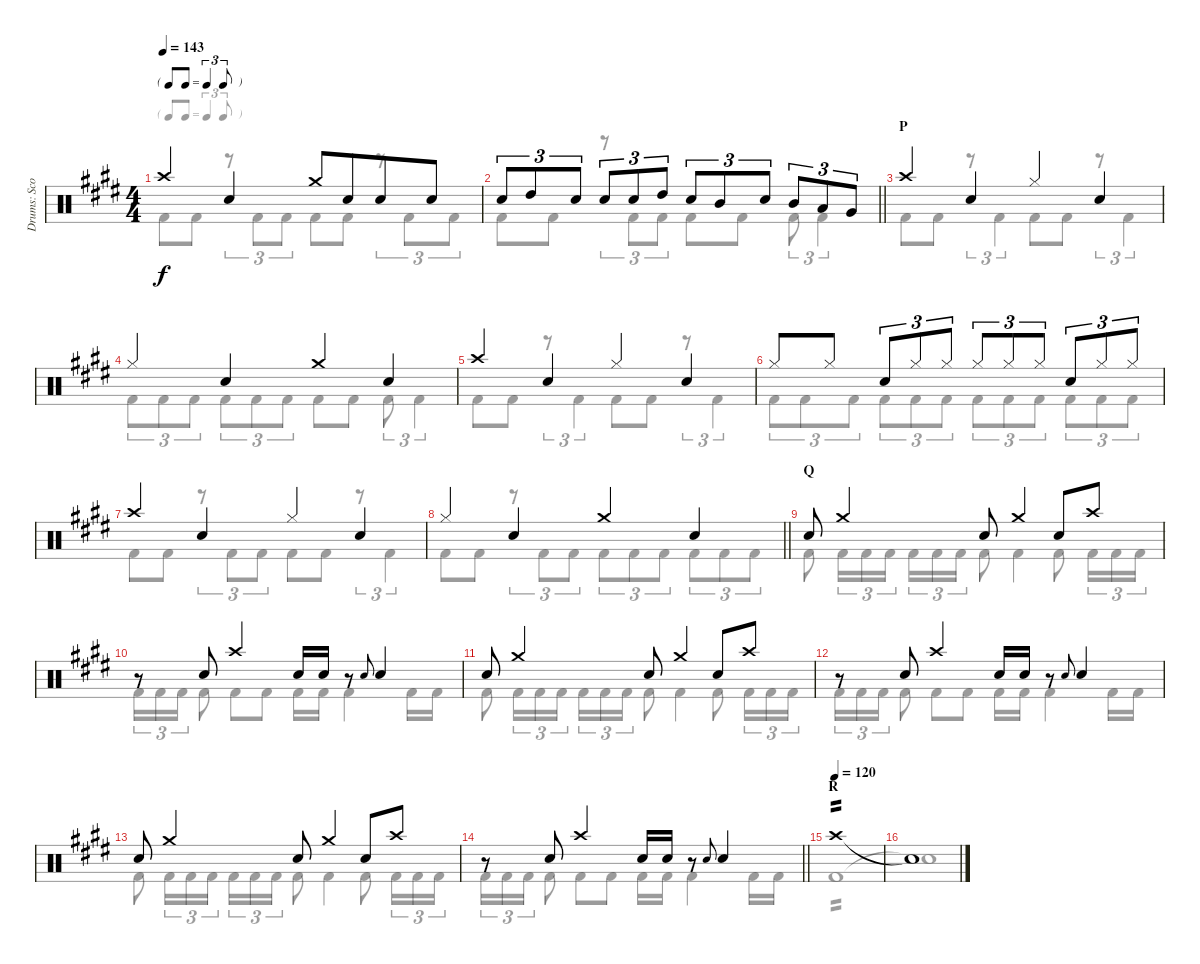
\track ("Drums: Scott" "Drums: Sco") {instrument percussion}
\staff {score}
\articulation defaults
\voice
\ts (4 4)
\tf triplet8th
\tempo 143
\clef neutral
\ks e "Crash high (hit)".4{dy f} "Snare (hit) 2".4 "Crash medium (hit)".8 "Snare (hit) 2".8{beam merge} "Snare (hit) 2".8 "Snare (hit) 2".8
|
\barLineRight lightlight "Snare (hit) 2".8{tu (3 2)} "High Tom (hit)".8{tu (3 2)} "Snare (hit) 2".8{tu (3 2)} "Snare (hit) 2".8{tu (3 2)} "Snare (hit) 2".8{tu (3 2)} "High Tom (hit)".8{tu (3 2)} "Electric Snare (hit)".8{tu (3 2)} "Mid Tom (hit)".8{tu (3 2)} "Electric Snare (hit)".8{tu (3 2)} "Mid Tom (hit)".8{tu (3 2)} "Low Tom (hit)".8{tu (3 2)} "Very Low Tom (hit)".8{tu (3 2)}
|
\section ("" "P")
"Crash high (hit)".4 "Snare (hit) 2".4 "Hi-Hat (closed)".4 "Snare (hit) 2".4 |
"Hi-Hat (closed)".4 "Snare (hit) 2".4 "Crash medium (hit)".4 "Snare (hit) 2".4 |
"Crash high (hit)".4 "Snare (hit) 2".4 "Hi-Hat (closed)".4 "Snare (hit) 2".4 |
"Hi-Hat (closed)".8 "Hi-Hat (closed)".8 "Snare (hit) 2".8{tu (3 2)} "Hi-Hat (closed)".8{tu (3 2)} "Hi-Hat (closed)".8{tu (3 2)} "Hi-Hat (closed)".8{tu (3 2)} "Hi-Hat (closed)".8{tu (3 2)} "Hi-Hat (closed)".8{tu (3 2)} "Snare (hit) 2".8{tu (3 2)} "Hi-Hat (closed)".8{tu (3 2)} "Hi-Hat (closed)".8{tu (3 2)} |
"Crash high (hit)".4 "Snare (hit) 2".4 "Hi-Hat (closed)".4 "Snare (hit) 2".4 |
\barLineRight lightlight "Hi-Hat (closed)".4 "Snare (hit) 2".4 "Crash medium (hit)".4 "Snare (hit) 2".4
|
\section ("" "Q")
"Snare (hit) 2".8 "Crash medium (hit)".4 "Snare (hit) 2".8 "Crash medium (hit)".4 "Snare (hit) 2".8 "Crash high (hit)".8 |
r.8 "Snare (hit) 2".8 "Crash high (hit)".4 "Snare (hit) 2".16 "Snare (hit) 2".16 r.8 "Electric Snare (hit)".8{gr onbeat} "Snare (hit) 2".4 |
"Snare (hit) 2".8 "Crash medium (hit)".4 "Snare (hit) 2".8 "Crash medium (hit)".4 "Snare (hit) 2".8 "Crash high (hit)".8 |
r.8 "Snare (hit) 2".8 "Crash high (hit)".4 "Snare (hit) 2".16 "Snare (hit) 2".16 r.8 "Electric Snare (hit)".8{gr onbeat} "Snare (hit) 2".4 |
"Snare (hit) 2".8 "Crash medium (hit)".4 "Snare (hit) 2".8 "Crash medium (hit)".4 "Snare (hit) 2".8 "Crash high (hit)".8 |
\barLineRight lightlight
r.8 "Snare (hit) 2".8 "Crash high (hit)".4 "Snare (hit) 2".16 "Snare (hit) 2".16 r.8 "Electric Snare (hit)".8{gr onbeat} "Snare (hit) 2".4 |
\section ("" "R")
\tempo (120)
"Crash high (hit)".1{tp 2} |
"Snare (hit)"{t}.1
\voice
\clef neutral
\ottava regular
\simile none
\ks e "Kick (hit) 2".8{dy f} "Kick (hit) 2".8
r.8{tu (3 2)} "Kick (hit) 2".8{tu (3 2)} "Kick (hit) 2".8{tu (3 2)} "Kick (hit) 2".8 "Kick (hit) 2".8 r.8{tu (3 2)} "Kick (hit) 2".8{tu (3 2)} "Kick (hit) 2".8{tu (3 2)} |
\barLineRight lightlight "Kick (hit) 2".8 "Kick (hit) 2".8
r.8{tu (3 2)} "Kick (hit) 2".8{tu (3 2)} "Kick (hit) 2".8{tu (3 2)} "Kick (hit) 2".8 "Kick (hit) 2".8 "Kick (hit) 2".8{tu (3 2)} "Kick (hit) 2".4{tu (3 2)} |
"Kick (hit) 2".8 "Kick (hit) 2".8 r.8{tu (3 2)} "Kick (hit) 2".4{tu (3 2)} "Kick (hit) 2".8 "Kick (hit) 2".8 r.8{tu (3 2)} "Kick (hit) 2".4{tu (3 2)} |
"Kick (hit) 2".8{tu (3 2)} "Kick (hit) 2".8{tu (3 2)} "Kick (hit) 2".8{tu (3 2)} "Kick (hit) 2".8{tu (3 2)} "Kick (hit) 2".8{tu (3 2)} "Kick (hit) 2".8{tu (3 2)} "Kick (hit) 2".8 "Kick (hit) 2".8 "Kick (hit) 2".8{tu (3 2)} "Kick (hit) 2".4{tu (3 2)} |
"Kick (hit) 2".8 "Kick (hit) 2".8 r.8{tu (3 2)} "Kick (hit) 2".4{tu (3 2)} "Kick (hit) 2".8 "Kick (hit) 2".8 r.8{tu (3 2)} "Kick (hit) 2".4{tu (3 2)} |
"Kick (hit) 2".8{tu (3 2)} "Kick (hit) 2".8{tu (3 2)} "Kick (hit) 2".8{tu (3 2)} "Kick (hit) 2".8{tu (3 2)} "Kick (hit) 2".8{tu (3 2)} "Kick (hit) 2".8{tu (3 2)} "Kick (hit) 2".8{tu (3 2)} "Kick (hit) 2".8{tu (3 2)} "Kick (hit) 2".8{tu (3 2)} "Kick (hit) 2".8{tu (3 2)} "Kick (hit) 2".8{tu (3 2)} "Kick (hit) 2".8{tu (3 2)} |
"Kick (hit) 2".8 "Kick (hit) 2".8 r.8{tu (3 2)} "Kick (hit) 2".8{tu (3 2)} "Kick (hit) 2".8{tu (3 2)} "Kick (hit) 2".8 "Kick (hit) 2".8 r.8{tu (3 2)} "Kick (hit) 2".4{tu (3 2)} |
\barLineRight lightlight "Kick (hit) 2".8 "Kick (hit) 2".8
r.8{tu (3 2)} "Kick (hit) 2".8{tu (3 2)} "Kick (hit) 2".8{tu (3 2)} "Kick (hit) 2".8{tu (3 2)} "Kick (hit) 2".8{tu (3 2)} "Kick (hit) 2".8{tu (3 2)} "Kick (hit) 2".8{tu (3 2)} "Kick (hit) 2".8{tu (3 2)} "Kick (hit) 2".8{tu (3 2)} |
"Kick (hit) 2".8 "Kick (hit) 2".16{tu (3 2)} "Kick (hit) 2".16{tu (3 2)} "Kick (hit) 2".16{tu (3 2)} "Kick (hit) 2".16{tu (3 2)} "Kick (hit) 2".16{tu (3 2)} "Kick (hit) 2".16{tu (3 2)} "Kick (hit) 2".8 "Kick (hit) 2".4 "Kick (hit) 2".8 "Kick (hit) 2".16{tu (3 2)} "Kick (hit) 2".16{tu (3 2)} "Kick (hit) 2".16{tu (3 2)} |
"Kick (hit) 2".16{tu (3 2)} "Kick (hit) 2".16{tu (3 2)} "Kick (hit) 2".16{tu (3 2)} "Kick (hit) 2".8 "Kick (hit) 2".8 "Kick (hit) 2".8 "Kick (hit) 2".16 "Kick (hit) 2".16 "Kick (hit) 2".4 "Kick (hit) 2".16 "Kick (hit) 2".16 |
"Kick (hit) 2".8 "Kick (hit) 2".16{tu (3 2)} "Kick (hit) 2".16{tu (3 2)} "Kick (hit) 2".16{tu (3 2)} "Kick (hit) 2".16{tu (3 2)} "Kick (hit) 2".16{tu (3 2)} "Kick (hit) 2".16{tu (3 2)} "Kick (hit) 2".8 "Kick (hit) 2".4 "Kick (hit) 2".8 "Kick (hit) 2".16{tu (3 2)} "Kick (hit) 2".16{tu (3 2)} "Kick (hit) 2".16{tu (3 2)} |
"Kick (hit) 2".16{tu (3 2)} "Kick (hit) 2".16{tu (3 2)} "Kick (hit) 2".16{tu (3 2)} "Kick (hit) 2".8 "Kick (hit) 2".8 "Kick (hit) 2".8 "Kick (hit) 2".16 "Kick (hit) 2".16 "Kick (hit) 2".4 "Kick (hit) 2".16 "Kick (hit) 2".16 |
"Kick (hit) 2".8 "Kick (hit) 2".16{tu (3 2)} "Kick (hit) 2".16{tu (3 2)} "Kick (hit) 2".16{tu (3 2)} "Kick (hit) 2".16{tu (3 2)} "Kick (hit) 2".16{tu (3 2)} "Kick (hit) 2".16{tu (3 2)} "Kick (hit) 2".8 "Kick (hit) 2".4 "Kick (hit) 2".8 "Kick (hit) 2".16{tu (3 2)} "Kick (hit) 2".16{tu (3 2)} "Kick (hit) 2".16{tu (3 2)} |
\barLineRight lightlight "Kick (hit) 2".16{tu (3 2)} "Kick (hit) 2".16{tu (3 2)} "Kick (hit) 2".16{tu (3 2)} "Kick (hit) 2".8 "Kick (hit) 2".8 "Kick (hit) 2".8 "Kick (hit) 2".16 "Kick (hit) 2".16 "Kick (hit) 2".4 "Kick (hit) 2".16 "Kick (hit) 2".16
|
"Kick (hit) 2".1{tp 2} |
"Snare (hit)"{t}.1
